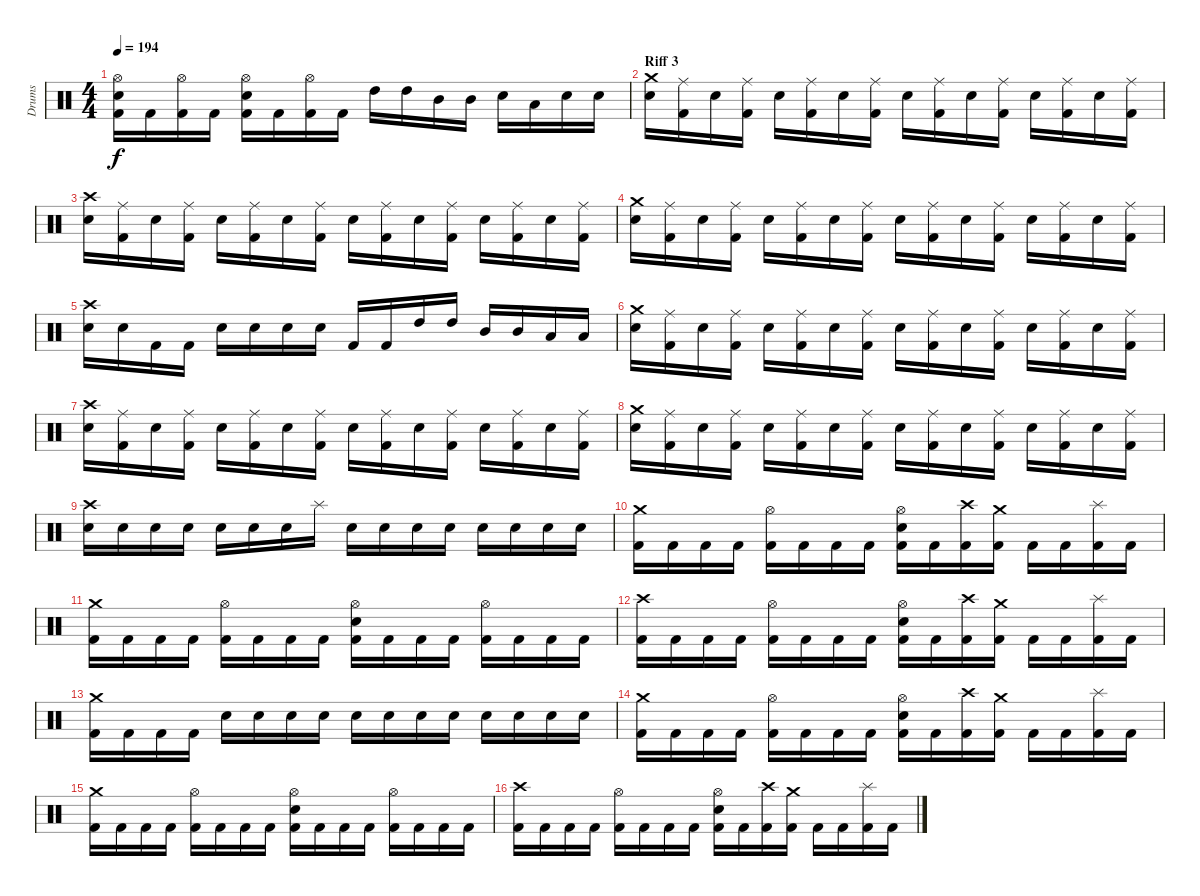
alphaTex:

\track ("Drums" "Drums") {instrument percussion}
\staff {score}
\articulation defaults
\ts (4 4)
\tempo 194
\clef neutral
\ks c
("Hi-Hat (open)" "Electric Snare (hit)" "Kick (hit) 2").16{dy f} "Kick (hit) 2".16 ("Hi-Hat (open)" "Kick (hit) 2").16 "Kick (hit) 2".16 ("Hi-Hat (open)" "Electric Snare (hit)" "Kick (hit) 2").16 "Kick (hit) 2".16 ("Hi-Hat (open)" "Kick (hit) 2").16 "Kick (hit) 2".16 "High Tom (hit)".16 "High Tom (hit)".16 "Mid Tom (hit)".16 "Mid Tom (hit)".16 "Electric Snare (hit)".16 "Low Tom (hit)".16 "Electric Snare (hit)".16 "Electric Snare (hit)".16 |
\section ("" "Riff 3")
("Crash medium (hit)" "Electric Snare (hit)").16 ("Ride (middle)" "Kick (hit) 2").16 "Electric Snare (hit)".16 ("Ride (middle)" "Kick (hit) 2").16 "Electric Snare (hit)".16 ("Ride (middle)" "Kick (hit) 2").16 "Electric Snare (hit)".16 ("Ride (middle)" "Kick (hit) 2").16 "Electric Snare (hit)".16 ("Ride (middle)" "Kick (hit) 2").16 "Electric Snare (hit)".16 ("Ride (middle)" "Kick (hit) 2").16 "Electric Snare (hit)".16 ("Ride (middle)" "Kick (hit) 2").16 "Electric Snare (hit)".16 ("Ride (middle)" "Kick (hit) 2").16 |
("Crash high (hit)" "Electric Snare (hit)").16 ("Ride (middle)" "Kick (hit) 2").16 "Electric Snare (hit)".16 ("Ride (middle)" "Kick (hit) 2").16 "Electric Snare (hit)".16 ("Ride (middle)" "Kick (hit) 2").16 "Electric Snare (hit)".16 ("Ride (middle)" "Kick (hit) 2").16 "Electric Snare (hit)".16 ("Ride (middle)" "Kick (hit) 2").16 "Electric Snare (hit)".16 ("Ride (middle)" "Kick (hit) 2").16 "Electric Snare (hit)".16 ("Ride (middle)" "Kick (hit) 2").16 "Electric Snare (hit)".16 ("Ride (middle)" "Kick (hit) 2").16 |
("Crash medium (hit)" "Electric Snare (hit)").16 ("Ride (middle)" "Kick (hit) 2").16 "Electric Snare (hit)".16 ("Ride (middle)" "Kick (hit) 2").16 "Electric Snare (hit)".16 ("Ride (middle)" "Kick (hit) 2").16 "Electric Snare (hit)".16 ("Ride (middle)" "Kick (hit) 2").16 "Electric Snare (hit)".16 ("Ride (middle)" "Kick (hit) 2").16 "Electric Snare (hit)".16 ("Ride (middle)" "Kick (hit) 2").16 "Electric Snare (hit)".16 ("Ride (middle)" "Kick (hit) 2").16 "Electric Snare (hit)".16 ("Ride (middle)" "Kick (hit) 2").16 |
("Crash high (hit)" "Electric Snare (hit)").16 "Electric Snare (hit)".16 "Kick (hit) 2".16 "Kick (hit) 2".16 "Electric Snare (hit)".16 "Electric Snare (hit)".16 "Electric Snare (hit)".16 "Electric Snare (hit)".16 "Kick (hit) 2".16 "Kick (hit) 2".16 "High Tom (hit)".16 "High Tom (hit)".16 "Mid Tom (hit)".16 "Mid Tom (hit)".16 "Low Tom (hit)".16 "Low Tom (hit)".16 |
("Crash medium (hit)" "Electric Snare (hit)").16 ("Ride (middle)" "Kick (hit) 2").16 "Electric Snare (hit)".16 ("Ride (middle)" "Kick (hit) 2").16 "Electric Snare (hit)".16 ("Ride (middle)" "Kick (hit) 2").16 "Electric Snare (hit)".16 ("Ride (middle)" "Kick (hit) 2").16 "Electric Snare (hit)".16 ("Ride (middle)" "Kick (hit) 2").16 "Electric Snare (hit)".16 ("Ride (middle)" "Kick (hit) 2").16 "Electric Snare (hit)".16 ("Ride (middle)" "Kick (hit) 2").16 "Electric Snare (hit)".16 ("Ride (middle)" "Kick (hit) 2").16 |
("Crash high (hit)" "Electric Snare (hit)").16 ("Ride (middle)" "Kick (hit) 2").16 "Electric Snare (hit)".16 ("Ride (middle)" "Kick (hit) 2").16 "Electric Snare (hit)".16 ("Ride (middle)" "Kick (hit) 2").16 "Electric Snare (hit)".16 ("Ride (middle)" "Kick (hit) 2").16 "Electric Snare (hit)".16 ("Ride (middle)" "Kick (hit) 2").16 "Electric Snare (hit)".16 ("Ride (middle)" "Kick (hit) 2").16 "Electric Snare (hit)".16 ("Ride (middle)" "Kick (hit) 2").16 "Electric Snare (hit)".16 ("Ride (middle)" "Kick (hit) 2").16 |
("Crash medium (hit)" "Electric Snare (hit)").16 ("Ride (middle)" "Kick (hit) 2").16 "Electric Snare (hit)".16 ("Ride (middle)" "Kick (hit) 2").16 "Electric Snare (hit)".16 ("Ride (middle)" "Kick (hit) 2").16 "Electric Snare (hit)".16 ("Ride (middle)" "Kick (hit) 2").16 "Electric Snare (hit)".16 ("Ride (middle)" "Kick (hit) 2").16 "Electric Snare (hit)".16 ("Ride (middle)" "Kick (hit) 2").16 "Electric Snare (hit)".16 ("Ride (middle)" "Kick (hit) 2").16 "Electric Snare (hit)".16 ("Ride (middle)" "Kick (hit) 2").16 |
("Crash high (hit)" "Electric Snare (hit)").16 "Electric Snare (hit)".16 "Electric Snare (hit)".16 "Electric Snare (hit)".16 "Electric Snare (hit)".16 "Electric Snare (hit)".16 "Electric Snare (hit)".16 "Splash (hit)".16 "Electric Snare (hit)".16 "Electric Snare (hit)".16 "Electric Snare (hit)".16 "Electric Snare (hit)".16 "Electric Snare (hit)".16 "Electric Snare (hit)".16 "Electric Snare (hit)".16 "Electric Snare (hit)".16 |
("Crash medium (hit)" "Kick (hit) 2").16 "Kick (hit) 2".16 "Kick (hit) 2".16 "Kick (hit) 2".16 ("Hi-Hat (open)" "Kick (hit) 2").16 "Kick (hit) 2".16 "Kick (hit) 2".16 "Kick (hit) 2".16 ("Hi-Hat (open)" "Electric Snare (hit)" "Kick (hit) 2").16 "Kick (hit) 2".16 ("Crash high (hit)" "Kick (hit) 2").16 ("Crash medium (hit)" "Kick (hit) 2").16 "Kick (hit) 2".16 "Kick (hit) 2".16 ("Splash (hit)" "Kick (hit) 2").16 "Kick (hit) 2".16 |
("Crash medium (hit)" "Kick (hit) 2").16 "Kick (hit) 2".16 "Kick (hit) 2".16 "Kick (hit) 2".16 ("Hi-Hat (open)" "Kick (hit) 2").16 "Kick (hit) 2".16 "Kick (hit) 2".16 "Kick (hit) 2".16 ("Hi-Hat (open)" "Electric Snare (hit)" "Kick (hit) 2").16 "Kick (hit) 2".16 "Kick (hit) 2".16 "Kick (hit) 2".16 ("Hi-Hat (open)" "Kick (hit) 2").16 "Kick (hit) 2".16 "Kick (hit) 2".16 "Kick (hit) 2".16 |
("Crash high (hit)" "Kick (hit) 2").16 "Kick (hit) 2".16 "Kick (hit) 2".16 "Kick (hit) 2".16 ("Hi-Hat (open)" "Kick (hit) 2").16 "Kick (hit) 2".16 "Kick (hit) 2".16 "Kick (hit) 2".16 ("Hi-Hat (open)" "Electric Snare (hit)" "Kick (hit) 2").16 "Kick (hit) 2".16 ("Crash high (hit)" "Kick (hit) 2").16 ("Crash medium (hit)" "Kick (hit) 2").16 "Kick (hit) 2".16 "Kick (hit) 2".16 ("Splash (hit)" "Kick (hit) 2").16 "Kick (hit) 2".16 |
("Crash medium (hit)" "Kick (hit) 2").16 "Kick (hit) 2".16 "Kick (hit) 2".16 "Kick (hit) 2".16 "Electric Snare (hit)".16 "Electric Snare (hit)".16 "Electric Snare (hit)".16 "Electric Snare (hit)".16 "Electric Snare (hit)".16 "Electric Snare (hit)".16 "Electric Snare (hit)".16 "Electric Snare (hit)".16 "Electric Snare (hit)".16 "Electric Snare (hit)".16 "Electric Snare (hit)".16 "Electric Snare (hit)".16 |
("Crash medium (hit)" "Kick (hit) 2").16 "Kick (hit) 2".16 "Kick (hit) 2".16 "Kick (hit) 2".16 ("Hi-Hat (open)" "Kick (hit) 2").16 "Kick (hit) 2".16 "Kick (hit) 2".16 "Kick (hit) 2".16 ("Hi-Hat (open)" "Electric Snare (hit)" "Kick (hit) 2").16 "Kick (hit) 2".16 ("Crash high (hit)" "Kick (hit) 2").16 ("Crash medium (hit)" "Kick (hit) 2").16 "Kick (hit) 2".16 "Kick (hit) 2".16 ("Splash (hit)" "Kick (hit) 2").16 "Kick (hit) 2".16 |
("Crash medium (hit)" "Kick (hit) 2").16 "Kick (hit) 2".16 "Kick (hit) 2".16 "Kick (hit) 2".16 ("Hi-Hat (open)" "Kick (hit) 2").16 "Kick (hit) 2".16 "Kick (hit) 2".16 "Kick (hit) 2".16 ("Hi-Hat (open)" "Electric Snare (hit)" "Kick (hit) 2").16 "Kick (hit) 2".16 "Kick (hit) 2".16 "Kick (hit) 2".16 ("Hi-Hat (open)" "Kick (hit) 2").16 "Kick (hit) 2".16 "Kick (hit) 2".16 "Kick (hit) 2".16 |
("Crash high (hit)" "Kick (hit) 2").16 "Kick (hit) 2".16 "Kick (hit) 2".16 "Kick (hit) 2".16 ("Hi-Hat (open)" "Kick (hit) 2").16 "Kick (hit) 2".16 "Kick (hit) 2".16 "Kick (hit) 2".16 ("Hi-Hat (open)" "Electric Snare (hit)" "Kick (hit) 2").16 "Kick (hit) 2".16 ("Crash high (hit)" "Kick (hit) 2").16 ("Crash medium (hit)" "Kick (hit) 2").16 "Kick (hit) 2".16 "Kick (hit) 2".16 ("Splash (hit)" "Kick (hit) 2").16 "Kick (hit) 2".16
